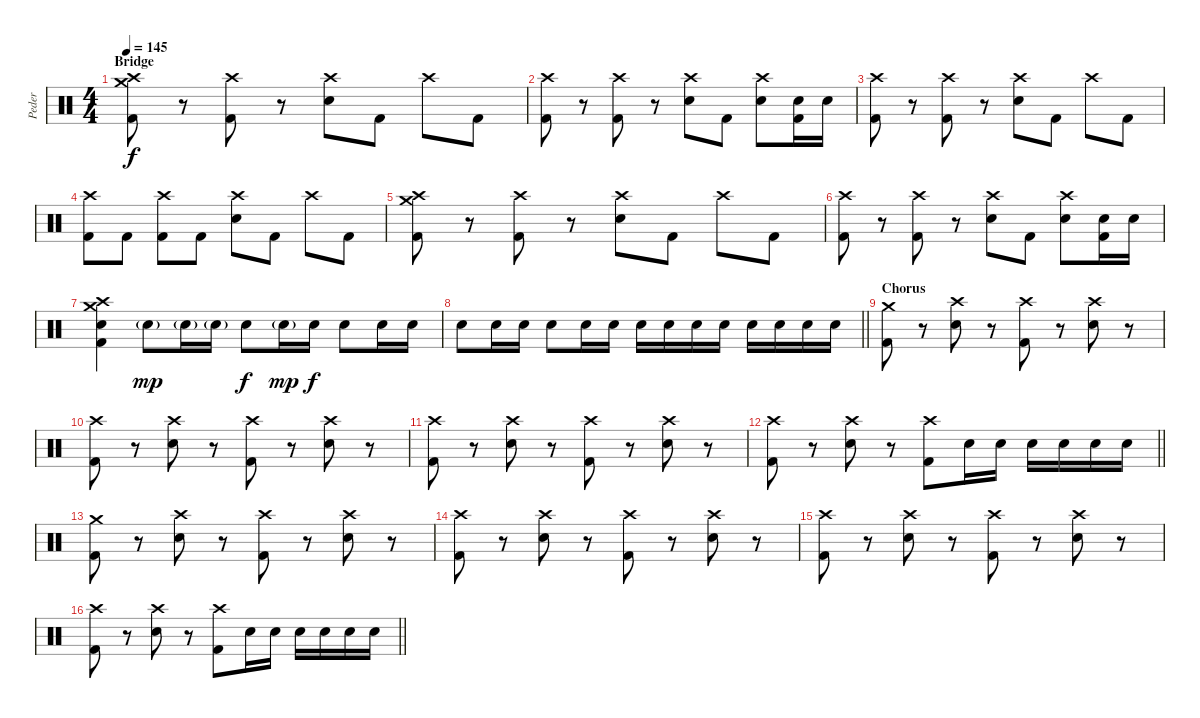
\track ("Peder" "Peder") {instrument percussion}
\staff {score}
\articulation defaults
\ts (4 4)
\section ("" "Bridge")
\tempo 145
\clef neutral
\ks c
("Crash medium (hit)" "Crash high (hit)" "Kick (hit) 2").8{dy f} r.8 ("Crash high (hit)" "Kick (hit) 2").8 r.8 ("Crash high (hit)" "Electric Snare (hit)").8 "Kick (hit) 2".8 "Crash high (hit)".8 "Kick (hit) 2".8 |
("Crash high (hit)" "Kick (hit) 2").8 r.8 ("Crash high (hit)" "Kick (hit) 2").8 r.8 ("Crash high (hit)" "Electric Snare (hit)").8 "Kick (hit) 2".8 ("Crash high (hit)" "Electric Snare (hit)").8 ("Electric Snare (hit)" "Kick (hit) 2").16 "Electric Snare (hit)".16 |
("Crash high (hit)" "Kick (hit) 2").8 r.8 ("Crash high (hit)" "Kick (hit) 2").8 r.8 ("Crash high (hit)" "Electric Snare (hit)").8 "Kick (hit) 2".8 "Crash high (hit)".8 "Kick (hit) 2".8 |
("Crash high (hit)" "Kick (hit) 2").8 "Kick (hit) 2".8 ("Crash high (hit)" "Kick (hit) 2").8 "Kick (hit) 2".8 ("Crash high (hit)" "Electric Snare (hit)").8 "Kick (hit) 2".8 "Crash high (hit)".8 "Kick (hit) 2".8 |
("Crash medium (hit)" "Crash high (hit)" "Kick (hit) 2").8 r.8 ("Crash high (hit)" "Kick (hit) 2").8 r.8 ("Crash high (hit)" "Electric Snare (hit)").8 "Kick (hit) 2".8 "Crash high (hit)".8 "Kick (hit) 2".8 |
("Crash high (hit)" "Kick (hit) 2").8 r.8 ("Crash high (hit)" "Kick (hit) 2").8 r.8 ("Crash high (hit)" "Electric Snare (hit)").8 "Kick (hit) 2".8 ("Crash high (hit)" "Electric Snare (hit)").8 ("Electric Snare (hit)" "Kick (hit) 2").16 "Electric Snare (hit)".16 |
("Crash medium (hit)" "Crash high (hit)" "Electric Snare (hit)" "Kick (hit) 2").4 "Electric Snare (hit)"{g}.8{dy mp} "Electric Snare (hit)"{g}.16 "Electric Snare (hit)"{g}.16 "Electric Snare (hit)".8{dy f} "Electric Snare (hit)"{g}.16{dy mp} "Electric Snare (hit)".16{dy f} "Electric Snare (hit)".8 "Electric Snare (hit)".16 "Electric Snare (hit)".16 |
\barLineRight lightlight "Electric Snare (hit)".8 "Electric Snare (hit)".16 "Electric Snare (hit)".16 "Electric Snare (hit)".8 "Electric Snare (hit)".16 "Electric Snare (hit)".16 "Electric Snare (hit)".16 "Electric Snare (hit)".16 "Electric Snare (hit)".16 "Electric Snare (hit)".16 "Electric Snare (hit)".16 "Electric Snare (hit)".16 "Electric Snare (hit)".16 "Electric Snare (hit)".16
|
\section ("" "Chorus")
("Crash medium (hit)" "Kick (hit) 2").8 r.8 ("Crash high (hit)" "Electric Snare (hit)").8 r.8 ("Crash high (hit)" "Kick (hit) 2").8 r.8 ("Crash high (hit)" "Electric Snare (hit)").8 r.8 |
("Crash high (hit)" "Kick (hit) 2").8 r.8 ("Crash high (hit)" "Electric Snare (hit)").8 r.8 ("Crash high (hit)" "Kick (hit) 2").8 r.8 ("Crash high (hit)" "Electric Snare (hit)").8 r.8 |
("Crash high (hit)" "Kick (hit) 2").8 r.8 ("Crash high (hit)" "Electric Snare (hit)").8 r.8 ("Crash high (hit)" "Kick (hit) 2").8 r.8 ("Crash high (hit)" "Electric Snare (hit)").8 r.8 |
\barLineRight lightlight
("Crash high (hit)" "Kick (hit) 2").8 r.8 ("Crash high (hit)" "Electric Snare (hit)").8 r.8 ("Crash high (hit)" "Kick (hit) 2").8 "Electric Snare (hit)".16 "Electric Snare (hit)".16 "Electric Snare (hit)".16 "Electric Snare (hit)".16 "Electric Snare (hit)".16 "Electric Snare (hit)".16 |
("Crash medium (hit)" "Kick (hit) 2").8 r.8 ("Crash high (hit)" "Electric Snare (hit)").8 r.8 ("Crash high (hit)" "Kick (hit) 2").8 r.8 ("Crash high (hit)" "Electric Snare (hit)").8 r.8 |
("Crash high (hit)" "Kick (hit) 2").8 r.8 ("Crash high (hit)" "Electric Snare (hit)").8 r.8 ("Crash high (hit)" "Kick (hit) 2").8 r.8 ("Crash high (hit)" "Electric Snare (hit)").8 r.8 |
("Crash high (hit)" "Kick (hit) 2").8 r.8 ("Crash high (hit)" "Electric Snare (hit)").8 r.8 ("Crash high (hit)" "Kick (hit) 2").8 r.8 ("Crash high (hit)" "Electric Snare (hit)").8 r.8 |
\barLineRight lightlight
("Crash high (hit)" "Kick (hit) 2").8 r.8 ("Crash high (hit)" "Electric Snare (hit)").8 r.8 ("Crash high (hit)" "Kick (hit) 2").8 "Electric Snare (hit)".16 "Electric Snare (hit)".16 "Electric Snare (hit)".16 "Electric Snare (hit)".16 "Electric Snare (hit)".16 "Electric Snare (hit)".16
